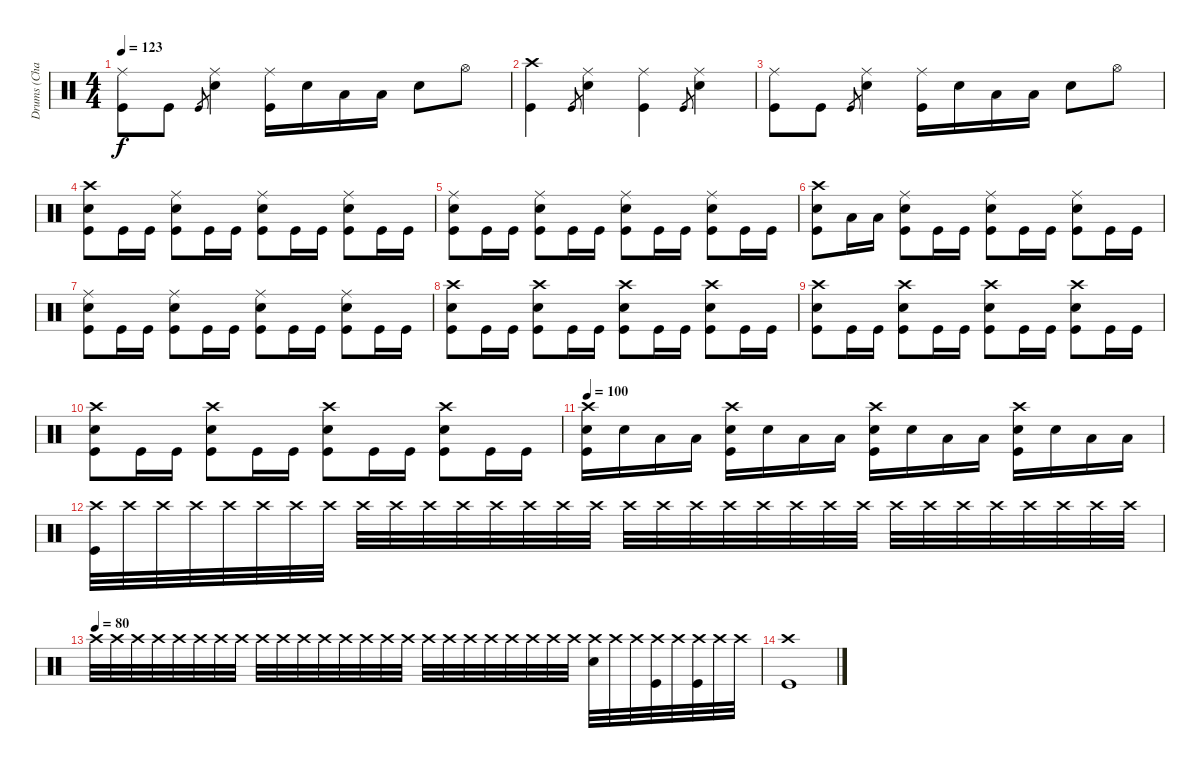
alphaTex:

\track ("Drums (Chad Smith)" "Drums (Cha") {instrument percussion}
\staff {score}
\articulation defaults
\ts (4 4)
\tempo 123
\clef neutral
\ks c
("Ride (middle)" "Kick (hit)").8{dy f} "Kick (hit)".8 "Kick (hit)".8{gr} ("Ride (middle)" "Snare (hit) 2").4 ("Ride (middle)" "Kick (hit)").16 "Snare (hit) 2".16 "Low Floor Tom (hit)".16 "Low Floor Tom (hit)".16 "Snare (hit) 2".8 "Hi-Hat (open)".8 |
("Crash high (hit)" "Kick (hit)").4 "Kick (hit)".8{gr} ("Ride (middle)" "Snare (hit) 2").4 ("Ride (middle)" "Kick (hit)").4 "Kick (hit)".8{gr} ("Ride (middle)" "Snare (hit) 2").4 |
("Ride (middle)" "Kick (hit)").8 "Kick (hit)".8 "Kick (hit)".8{gr} ("Ride (middle)" "Snare (hit) 2").4 ("Ride (middle)" "Kick (hit)").16 "Snare (hit) 2".16 "Low Floor Tom (hit)".16 "Low Floor Tom (hit)".16 "Snare (hit) 2".8 "Hi-Hat (open)".8 |
("Crash high (hit)" "Kick (hit)" "Snare (hit) 2").8 "Kick (hit)".16 "Kick (hit)".16 ("Ride (middle)" "Kick (hit)" "Snare (hit) 2").8 "Kick (hit)".16 "Kick (hit)".16 ("Ride (middle)" "Kick (hit)" "Snare (hit) 2").8 "Kick (hit)".16 "Kick (hit)".16 ("Ride (middle)" "Kick (hit)" "Snare (hit) 2").8 "Kick (hit)".16 "Kick (hit)".16 |
("Ride (middle)" "Kick (hit)" "Snare (hit) 2").8 "Kick (hit)".16 "Kick (hit)".16 ("Ride (middle)" "Kick (hit)" "Snare (hit) 2").8 "Kick (hit)".16 "Kick (hit)".16 ("Ride (middle)" "Kick (hit)" "Snare (hit) 2").8 "Kick (hit)".16 "Kick (hit)".16 ("Ride (middle)" "Kick (hit)" "Snare (hit) 2").8 "Kick (hit)".16 "Kick (hit)".16 |
("Crash high (hit)" "Kick (hit)" "Snare (hit) 2").8 "Low Floor Tom (hit)".16 "Low Floor Tom (hit)".16 ("Ride (middle)" "Kick (hit)" "Snare (hit) 2").8 "Kick (hit)".16 "Kick (hit)".16 ("Ride (middle)" "Kick (hit)" "Snare (hit) 2").8 "Kick (hit)".16 "Kick (hit)".16 ("Ride (middle)" "Kick (hit)" "Snare (hit) 2").8 "Kick (hit)".16 "Kick (hit)".16 |
("Ride (middle)" "Kick (hit)" "Snare (hit) 2").8 "Kick (hit)".16 "Kick (hit)".16 ("Ride (middle)" "Kick (hit)" "Snare (hit) 2").8 "Kick (hit)".16 "Kick (hit)".16 ("Ride (middle)" "Kick (hit)" "Snare (hit) 2").8 "Kick (hit)".16 "Kick (hit)".16 ("Ride (middle)" "Kick (hit)" "Snare (hit) 2").8 "Kick (hit)".16 "Kick (hit)".16 |
("Crash high (hit)" "Kick (hit)" "Snare (hit) 2").8 "Kick (hit)".16 "Kick (hit)".16 ("Crash high (hit)" "Kick (hit)" "Snare (hit) 2").8 "Kick (hit)".16 "Kick (hit)".16 ("Crash high (hit)" "Kick (hit)" "Snare (hit) 2").8 "Kick (hit)".16 "Kick (hit)".16 ("Crash high (hit)" "Kick (hit)" "Snare (hit) 2").8 "Kick (hit)".16 "Kick (hit)".16 |
("Crash high (hit)" "Kick (hit)" "Snare (hit) 2").8 "Kick (hit)".16 "Kick (hit)".16 ("Crash high (hit)" "Kick (hit)" "Snare (hit) 2").8 "Kick (hit)".16 "Kick (hit)".16 ("Crash high (hit)" "Kick (hit)" "Snare (hit) 2").8 "Kick (hit)".16 "Kick (hit)".16 ("Crash high (hit)" "Kick (hit)" "Snare (hit) 2").8 "Kick (hit)".16 "Kick (hit)".16 |
("Crash high (hit)" "Kick (hit)" "Snare (hit) 2").8 "Kick (hit)".16 "Kick (hit)".16 ("Crash high (hit)" "Kick (hit)" "Snare (hit) 2").8 "Kick (hit)".16 "Kick (hit)".16 ("Crash high (hit)" "Kick (hit)" "Snare (hit) 2").8 "Kick (hit)".16 "Kick (hit)".16 ("Crash high (hit)" "Kick (hit)" "Snare (hit) 2").8 "Kick (hit)".16 "Kick (hit)".16 |
\tempo 100
("Crash high (hit)" "Kick (hit)" "Snare (hit) 2").16 "Snare (hit) 2".16 "Low Floor Tom (hit)".16 "Low Floor Tom (hit)".16 ("Crash high (hit)" "Kick (hit)" "Snare (hit) 2").16 "Snare (hit) 2".16 "Low Floor Tom (hit)".16 "Low Floor Tom (hit)".16 ("Crash high (hit)" "Kick (hit)" "Snare (hit) 2").16 "Snare (hit) 2".16 "Low Floor Tom (hit)".16 "Low Floor Tom (hit)".16 ("Crash high (hit)" "Kick (hit)" "Snare (hit) 2").16 "Snare (hit) 2".16 "Low Floor Tom (hit)".16 "Low Floor Tom (hit)".16 |
("Crash high (hit)" "Kick (hit)").32 "Crash high (hit)".32 "Crash high (hit)".32 "Crash high (hit)".32 "Crash high (hit)".32 "Crash high (hit)".32 "Crash high (hit)".32 "Crash high (hit)".32 "Crash high (hit)".32 "Crash high (hit)".32 "Crash high (hit)".32 "Crash high (hit)".32 "Crash high (hit)".32 "Crash high (hit)".32 "Crash high (hit)".32 "Crash high (hit)".32 "Crash high (hit)".32 "Crash high (hit)".32 "Crash high (hit)".32 "Crash high (hit)".32 "Crash high (hit)".32 "Crash high (hit)".32 "Crash high (hit)".32 "Crash high (hit)".32 "Crash high (hit)".32 "Crash high (hit)".32 "Crash high (hit)".32 "Crash high (hit)".32 "Crash high (hit)".32 "Crash high (hit)".32 "Crash high (hit)".32 "Crash high (hit)".32 |
\tempo (80)
"Crash high (hit)".32 "Crash high (hit)".32 "Crash high (hit)".32 "Crash high (hit)".32 "Crash high (hit)".32 "Crash high (hit)".32 "Crash high (hit)".32 "Crash high (hit)".32 "Crash high (hit)".32 "Crash high (hit)".32 "Crash high (hit)".32 "Crash high (hit)".32 "Crash high (hit)".32 "Crash high (hit)".32 "Crash high (hit)".32 "Crash high (hit)".32 "Crash high (hit)".32 "Crash high (hit)".32 "Crash high (hit)".32 "Crash high (hit)".32 "Crash high (hit)".32 "Crash high (hit)".32 "Crash high (hit)".32 "Crash high (hit)".32 ("Crash high (hit)" "Snare (hit) 2").32 "Crash high (hit)".32 "Crash high (hit)".32 ("Crash high (hit)" "Kick (hit)").32 "Crash high (hit)".32 ("Crash high (hit)" "Kick (hit)").32 "Crash high (hit)".32 "Crash high (hit)".32 |
("Crash high (hit)" "Kick (hit)").1
